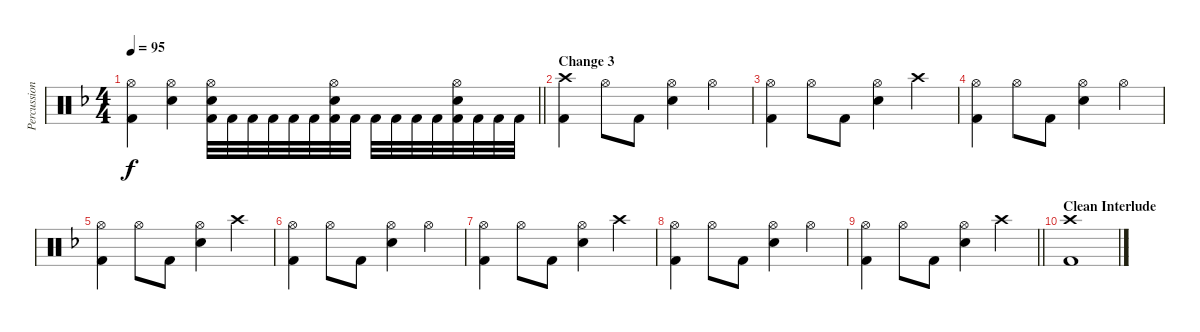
\track ("Percussions (Scott Travis)" "Percussion") {instrument percussion}
\staff {score}
\articulation defaults
\ts (4 4)
\tempo 95
\clef neutral
\barLineRight lightlight
\ks dminor
("Hi-Hat (open)" "Kick (hit) 2").4{dy f} ("Hi-Hat (open)" "Snare (hit) 2").4 ("Hi-Hat (open)" "Snare (hit) 2" "Kick (hit) 2").32 "Kick (hit) 2".32 "Kick (hit) 2".32 "Kick (hit) 2".32 "Kick (hit) 2".32 "Kick (hit) 2".32 ("Hi-Hat (open)" "Snare (hit) 2" "Kick (hit) 2").32 "Kick (hit) 2".32 "Kick (hit) 2".32 "Kick (hit) 2".32 "Kick (hit) 2".32 "Kick (hit) 2".32 ("Hi-Hat (open)" "Snare (hit) 2" "Kick (hit) 2").32 "Kick (hit) 2".32 "Kick (hit) 2".32 "Kick (hit) 2".32 |
\section ("" "Change 3")
("Crash high (hit)" "Kick (hit) 2").4 "Hi-Hat (open)".8 "Kick (hit) 2".8 ("Hi-Hat (open)" "Snare (hit) 2").4 "Hi-Hat (open)".4 |
("Hi-Hat (open)" "Kick (hit) 2").4 "Hi-Hat (open)".8 "Kick (hit) 2".8 ("Hi-Hat (open)" "Snare (hit) 2").4 "Crash high (hit)".4 |
("Hi-Hat (open)" "Kick (hit) 2").4 "Hi-Hat (open)".8 "Kick (hit) 2".8 ("Hi-Hat (open)" "Snare (hit) 2").4 "Hi-Hat (open)".4 |
("Hi-Hat (open)" "Kick (hit) 2").4 "Hi-Hat (open)".8 "Kick (hit) 2".8 ("Hi-Hat (open)" "Snare (hit) 2").4 "Crash high (hit)".4 |
("Hi-Hat (open)" "Kick (hit) 2").4 "Hi-Hat (open)".8 "Kick (hit) 2".8 ("Hi-Hat (open)" "Snare (hit) 2").4 "Hi-Hat (open)".4 |
("Hi-Hat (open)" "Kick (hit) 2").4 "Hi-Hat (open)".8 "Kick (hit) 2".8 ("Hi-Hat (open)" "Snare (hit) 2").4 "Crash high (hit)".4 |
("Hi-Hat (open)" "Kick (hit) 2").4 "Hi-Hat (open)".8 "Kick (hit) 2".8 ("Hi-Hat (open)" "Snare (hit) 2").4 "Hi-Hat (open)".4 |
\barLineRight lightlight
("Hi-Hat (open)" "Kick (hit) 2").4 "Hi-Hat (open)".8 "Kick (hit) 2".8 ("Hi-Hat (open)" "Snare (hit) 2").4 "Crash high (hit)".4 |
\section ("" "Clean Interlude")
("Crash high (hit)" "Kick (hit) 2").1
